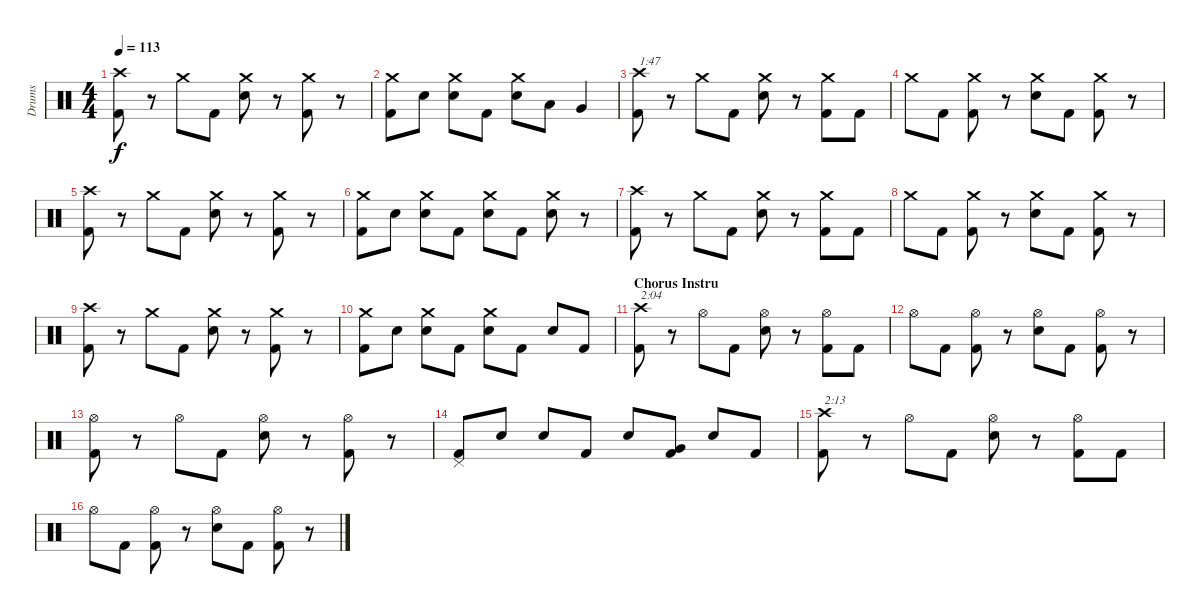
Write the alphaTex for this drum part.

\track ("Drums" "Drums") {instrument percussion}
\staff {score}
\articulation defaults
\ts (4 4)
\tempo 113
\clef neutral
\ks c
("Crash high (hit)" "Kick (hit) 2").8{dy f} r.8 "Crash medium (hit)".8 "Kick (hit) 2".8 ("Crash medium (hit)" "Snare (hit) 2").8 r.8 ("Crash medium (hit)" "Kick (hit) 2").8 r.8 |
("Crash medium (hit)" "Kick (hit) 2").8 "Snare (hit) 2".8 ("Crash medium (hit)" "Snare (hit) 2").8 "Kick (hit) 2".8 ("Crash medium (hit)" "Snare (hit) 2").8 "Low Tom (hit)".8 "Very Low Tom (hit)".4 |
("Crash high (hit)" "Kick (hit) 2").8{txt "1:47"} r.8 "Crash medium (hit)".8 "Kick (hit) 2".8 ("Crash medium (hit)" "Snare (hit) 2").8 r.8 ("Crash medium (hit)" "Kick (hit) 2").8 "Kick (hit) 2".8 |
"Crash medium (hit)".8 "Kick (hit) 2".8 ("Crash medium (hit)" "Kick (hit) 2").8 r.8 ("Crash medium (hit)" "Snare (hit) 2").8 "Kick (hit) 2".8 ("Crash medium (hit)" "Kick (hit) 2").8 r.8 |
("Crash high (hit)" "Kick (hit) 2").8 r.8 "Crash medium (hit)".8 "Kick (hit) 2".8 ("Crash medium (hit)" "Snare (hit) 2").8 r.8 ("Crash medium (hit)" "Kick (hit) 2").8 r.8 |
("Crash medium (hit)" "Kick (hit) 2").8 "Snare (hit) 2".8 ("Crash medium (hit)" "Snare (hit) 2").8 "Kick (hit) 2".8 ("Crash medium (hit)" "Snare (hit) 2").8 "Kick (hit) 2".8 ("Crash medium (hit)" "Snare (hit) 2").8 r.8 |
("Crash high (hit)" "Kick (hit) 2").8 r.8 "Crash medium (hit)".8 "Kick (hit) 2".8 ("Crash medium (hit)" "Snare (hit) 2").8 r.8 ("Crash medium (hit)" "Kick (hit) 2").8 "Kick (hit) 2".8 |
"Crash medium (hit)".8 "Kick (hit) 2".8 ("Crash medium (hit)" "Kick (hit) 2").8 r.8 ("Crash medium (hit)" "Snare (hit) 2").8 "Kick (hit) 2".8 ("Crash medium (hit)" "Kick (hit) 2").8 r.8 |
("Crash high (hit)" "Kick (hit) 2").8 r.8 "Crash medium (hit)".8 "Kick (hit) 2".8 ("Crash medium (hit)" "Snare (hit) 2").8 r.8 ("Crash medium (hit)" "Kick (hit) 2").8 r.8 |
("Crash medium (hit)" "Kick (hit) 2").8 "Snare (hit) 2".8 ("Crash medium (hit)" "Snare (hit) 2").8 "Kick (hit) 2".8 ("Crash medium (hit)" "Snare (hit) 2").8 "Kick (hit) 2".8 "Snare (hit) 2".8 "Kick (hit) 2".8 |
\section ("" "Chorus Instru")
("Crash high (hit)" "Kick (hit) 2").8{txt "2:04"} r.8 "Hi-Hat (open)".8 "Kick (hit) 2".8 ("Hi-Hat (open)" "Snare (hit) 2").8 r.8 ("Hi-Hat (open)" "Kick (hit) 2").8 "Kick (hit) 2".8 |
"Hi-Hat (open)".8 "Kick (hit) 2".8 ("Hi-Hat (open)" "Kick (hit) 2").8 r.8 ("Hi-Hat (open)" "Snare (hit) 2").8 "Kick (hit) 2".8 ("Hi-Hat (open)" "Kick (hit) 2").8 r.8 |
("Hi-Hat (open)" "Kick (hit) 2").8 r.8 "Hi-Hat (open)".8 "Kick (hit) 2".8 ("Hi-Hat (open)" "Snare (hit) 2").8 r.8 ("Hi-Hat (open)" "Kick (hit) 2").8 r.8 |
("Pedal Hi-Hat (hit)" "Kick (hit) 2").8 "Snare (hit) 2".8 "Snare (hit) 2".8 "Kick (hit) 2".8 "Snare (hit) 2".8 ("Very Low Tom (hit)" "Kick (hit) 2").8 "Snare (hit) 2".8 "Kick (hit) 2".8 |
("Crash high (hit)" "Kick (hit) 2").8{txt "2:13"} r.8 "Hi-Hat (open)".8 "Kick (hit) 2".8 ("Hi-Hat (open)" "Snare (hit) 2").8 r.8 ("Hi-Hat (open)" "Kick (hit) 2").8 "Kick (hit) 2".8 |
"Hi-Hat (open)".8 "Kick (hit) 2".8 ("Hi-Hat (open)" "Kick (hit) 2").8 r.8 ("Hi-Hat (open)" "Snare (hit) 2").8 "Kick (hit) 2".8 ("Hi-Hat (open)" "Kick (hit) 2").8 r.8
